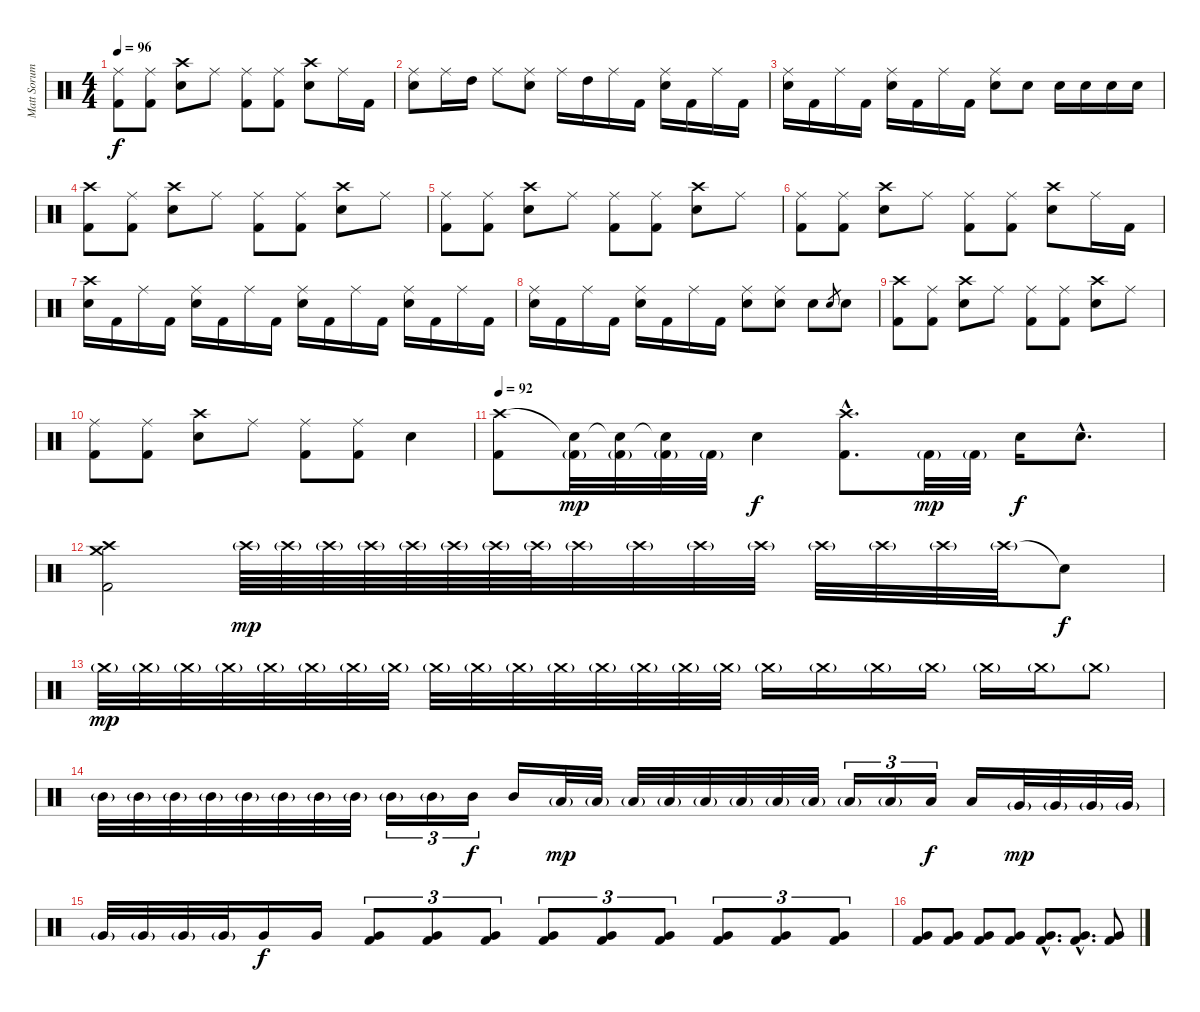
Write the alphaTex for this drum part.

\track ("Matt Sorum" "Matt Sorum") {instrument percussion}
\staff {score}
\articulation defaults
\ts (4 4)
\tempo 96
\clef neutral
\ks c
("Ride (middle)" "Kick (hit) 2").8{dy f} ("Ride (middle)" "Kick (hit) 2").8 ("Crash high (hit)" "Electric Snare (hit)").8 "Ride (middle)".8 ("Ride (middle)" "Kick (hit) 2").8 ("Ride (middle)" "Kick (hit) 2").8 ("Crash high (hit)" "Electric Snare (hit)").8 "Ride (middle)".16 "Kick (hit) 2".16 |
("Ride (middle)" "Electric Snare (hit)").8 "Ride (middle)".16 "High Tom (hit)".16 "Ride (middle)".8 ("Ride (middle)" "Electric Snare (hit)").8 "Ride (middle)".16 "High Tom (hit)".16 "Ride (middle)".16 "Kick (hit) 2".16 ("Ride (middle)" "Electric Snare (hit)").16 "Kick (hit) 2".16 "Ride (middle)".16 "Kick (hit) 2".16 |
("Ride (middle)" "Electric Snare (hit)").16 "Kick (hit) 2".16 "Ride (middle)".16 "Kick (hit) 2".16 ("Ride (middle)" "Electric Snare (hit)").16 "Kick (hit) 2".16 "Ride (middle)".16 "Kick (hit) 2".16 ("Ride (middle)" "Electric Snare (hit)").8 "Electric Snare (hit)".8 "Electric Snare (hit)".16 "Electric Snare (hit)".16 "Electric Snare (hit)".16 "Electric Snare (hit)".16 |
("Crash high (hit)" "Kick (hit) 2").8 ("Ride (middle)" "Kick (hit) 2").8 ("Crash high (hit)" "Electric Snare (hit)").8 "Ride (middle)".8 ("Ride (middle)" "Kick (hit) 2").8 ("Ride (middle)" "Kick (hit) 2").8 ("Crash high (hit)" "Electric Snare (hit)").8 "Ride (middle)".8 |
("Ride (middle)" "Kick (hit) 2").8 ("Ride (middle)" "Kick (hit) 2").8 ("Crash high (hit)" "Electric Snare (hit)").8 "Ride (middle)".8 ("Ride (middle)" "Kick (hit) 2").8 ("Ride (middle)" "Kick (hit) 2").8 ("Crash high (hit)" "Electric Snare (hit)").8 "Ride (middle)".8 |
("Ride (middle)" "Kick (hit) 2").8 ("Ride (middle)" "Kick (hit) 2").8 ("Crash high (hit)" "Electric Snare (hit)").8 "Ride (middle)".8 ("Ride (middle)" "Kick (hit) 2").8 ("Ride (middle)" "Kick (hit) 2").8 ("Crash high (hit)" "Electric Snare (hit)").8 "Ride (middle)".16 "Kick (hit) 2".16 |
("Crash high (hit)" "Electric Snare (hit)").16 "Kick (hit) 2".16 "Ride (middle)".16 "Kick (hit) 2".16 ("Ride (middle)" "Electric Snare (hit)").16 "Kick (hit) 2".16 "Ride (middle)".16 "Kick (hit) 2".16 ("Ride (middle)" "Electric Snare (hit)").16 "Kick (hit) 2".16 "Ride (middle)".16 "Kick (hit) 2".16 ("Ride (middle)" "Electric Snare (hit)").16 "Kick (hit) 2".16 "Ride (middle)".16 "Kick (hit) 2".16 |
("Ride (middle)" "Electric Snare (hit)").16 "Kick (hit) 2".16 "Ride (middle)".16 "Kick (hit) 2".16 ("Ride (middle)" "Electric Snare (hit)").16 "Kick (hit) 2".16 "Ride (middle)".16 "Kick (hit) 2".16 ("Ride (middle)" "Electric Snare (hit)").8 ("Ride (middle)" "Electric Snare (hit)").8 "Electric Snare (hit)".8 "Electric Snare (hit)".8{gr} "Electric Snare (hit)".8 |
("Crash high (hit)" "Kick (hit) 2").8 ("Ride (middle)" "Kick (hit) 2").8 ("Crash high (hit)" "Electric Snare (hit)").8 "Ride (middle)".8 ("Ride (middle)" "Kick (hit) 2").8 ("Ride (middle)" "Kick (hit) 2").8 ("Crash high (hit)" "Electric Snare (hit)").8 "Ride (middle)".8 |
("Ride (middle)" "Kick (hit) 2").8 ("Ride (middle)" "Kick (hit) 2").8 ("Crash high (hit)" "Electric Snare (hit)").8 "Ride (middle)".8 ("Ride (middle)" "Kick (hit) 2").8 ("Ride (middle)" "Kick (hit) 2").8 "Electric Snare (hit)".4 |
\tempo 92
("Crash high (hit)" "Kick (hit) 2").8 ("Snare (hit)"{t} "Kick (hit) 2"{g}).32{dy mp} ("Snare (hit)"{t} "Kick (hit) 2"{g}).32 ("Snare (hit)"{t} "Kick (hit) 2"{g}).32 "Kick (hit) 2"{g}.32 "Electric Snare (hit)".4{dy f} ("Crash high (hit)"{hac} "Kick (hit) 2"{hac}).8{d} "Kick (hit) 2"{g}.32{dy mp} "Kick (hit) 2"{g}.32 "Electric Snare (hit)".16{dy f} "Electric Snare (hit)"{hac}.8{d} |
("Crash medium (hit)" "Crash high (hit)" "Kick (hit) 2").2 "Crash high (hit)"{g}.64{dy mp} "Crash high (hit)"{g}.64 "Crash high (hit)"{g}.64 "Crash high (hit)"{g}.64 "Crash high (hit)"{g}.64 "Crash high (hit)"{g}.64 "Crash high (hit)"{g}.64 "Crash high (hit)"{g}.64 "Crash high (hit)"{g}.32 "Crash high (hit)"{g}.32 "Crash high (hit)"{g}.32 "Crash high (hit)"{g}.32 "Crash high (hit)"{g}.32 "Crash high (hit)"{g}.32 "Crash high (hit)"{g}.32 "Crash high (hit)"{g}.32 "Snare (hit)"{t}.8{dy f} |
"Crash medium (hit)"{g}.32{dy mp} "Crash medium (hit)"{g}.32 "Crash medium (hit)"{g}.32 "Crash medium (hit)"{g}.32 "Crash medium (hit)"{g}.32 "Crash medium (hit)"{g}.32 "Crash medium (hit)"{g}.32 "Crash medium (hit)"{g}.32 "Crash medium (hit)"{g}.32 "Crash medium (hit)"{g}.32 "Crash medium (hit)"{g}.32 "Crash medium (hit)"{g}.32 "Crash medium (hit)"{g}.32 "Crash medium (hit)"{g}.32 "Crash medium (hit)"{g}.32 "Crash medium (hit)"{g}.32 "Crash medium (hit)"{g}.16 "Crash medium (hit)"{g}.16 "Crash medium (hit)"{g}.16 "Crash medium (hit)"{g}.16 "Crash medium (hit)"{g}.16 "Crash medium (hit)"{g}.16 "Crash medium (hit)"{g}.8 |
"Mid Tom (hit)"{g}.32 "Mid Tom (hit)"{g}.32 "Mid Tom (hit)"{g}.32 "Mid Tom (hit)"{g}.32 "Mid Tom (hit)"{g}.32 "Mid Tom (hit)"{g}.32 "Mid Tom (hit)"{g}.32 "Mid Tom (hit)"{g}.32 "Mid Tom (hit)"{g}.16{tu (3 2)} "Mid Tom (hit)"{g}.16{tu (3 2)} "Mid Tom (hit)".16{tu (3 2) dy f} "Mid Tom (hit)".16 "Low Tom (hit)"{g}.32{dy mp} "Low Tom (hit)"{g}.32 "Low Tom (hit)"{g}.32 "Low Tom (hit)"{g}.32 "Low Tom (hit)"{g}.32 "Low Tom (hit)"{g}.32 "Low Tom (hit)"{g}.32 "Low Tom (hit)"{g}.32 "Low Tom (hit)"{g}.16{tu (3 2)} "Low Tom (hit)"{g}.16{tu (3 2)} "Low Tom (hit)".16{tu (3 2) dy f} "Low Tom (hit)".16 "Very Low Tom (hit)"{g}.32{dy mp} "Very Low Tom (hit)"{g}.32 "Very Low Tom (hit)"{g}.32 "Very Low Tom (hit)"{g}.32 |
"Very Low Tom (hit)"{g}.32 "Very Low Tom (hit)"{g}.32 "Very Low Tom (hit)"{g}.32 "Very Low Tom (hit)"{g}.32 "Very Low Tom (hit)".16{dy f} "Very Low Tom (hit)".16 ("Very Low Tom (hit)" "Kick (hit) 2").8{tu (3 2)} ("Very Low Tom (hit)" "Kick (hit) 2").8{tu (3 2)} ("Very Low Tom (hit)" "Kick (hit) 2").8{tu (3 2)} ("Very Low Tom (hit)" "Kick (hit) 2").8{tu (3 2)} ("Very Low Tom (hit)" "Kick (hit) 2").8{tu (3 2)} ("Very Low Tom (hit)" "Kick (hit) 2").8{tu (3 2)} ("Very Low Tom (hit)" "Kick (hit) 2").8{tu (3 2)} ("Very Low Tom (hit)" "Kick (hit) 2").8{tu (3 2)} ("Very Low Tom (hit)" "Kick (hit) 2").8{tu (3 2)} |
("Very Low Tom (hit)" "Kick (hit) 2").8 ("Very Low Tom (hit)" "Kick (hit) 2").8 ("Very Low Tom (hit)" "Kick (hit) 2").8 ("Very Low Tom (hit)" "Kick (hit) 2").8 ("Very Low Tom (hit)"{hac} "Kick (hit) 2"{hac}).8{d} ("Very Low Tom (hit)"{hac} "Kick (hit) 2"{hac}).8{d} ("Very Low Tom (hit)" "Kick (hit) 2").8
